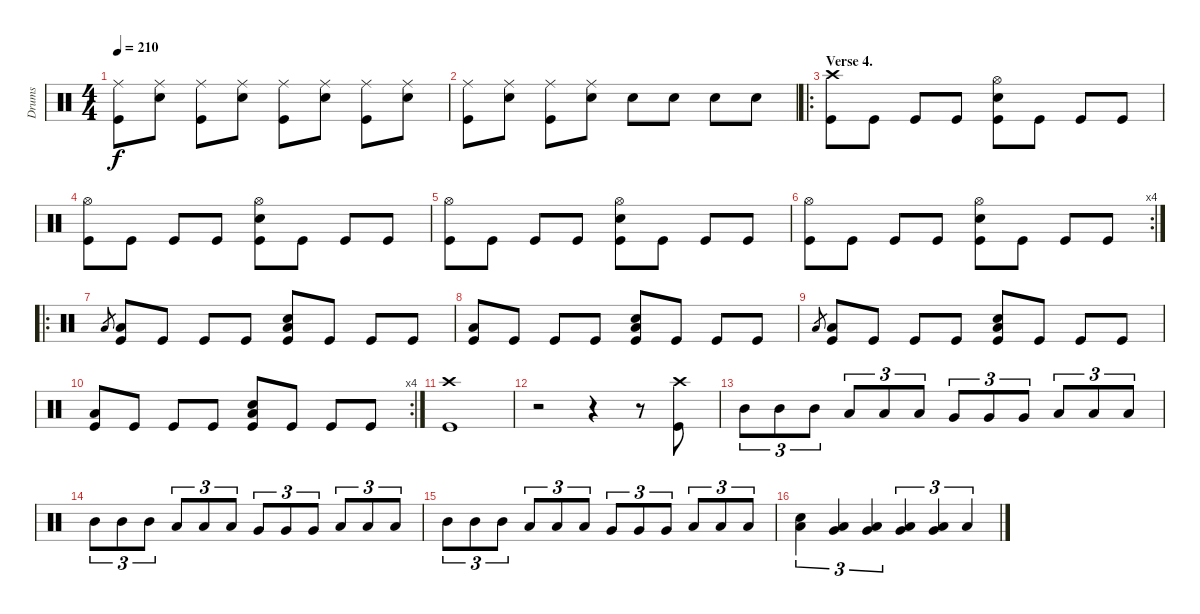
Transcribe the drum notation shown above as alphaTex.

\track ("Drums" "Drums") {instrument percussion}
\staff {score}
\articulation defaults
\ts (4 4)
\tempo 210
\clef neutral
\ks c
("Ride (middle)" "Kick (hit)").8{dy f} ("Ride (middle)" "Snare (hit) 2").8 ("Ride (middle)" "Kick (hit)").8 ("Ride (middle)" "Snare (hit) 2").8 ("Ride (middle)" "Kick (hit)").8 ("Ride (middle)" "Snare (hit) 2").8 ("Ride (middle)" "Kick (hit)").8 ("Ride (middle)" "Snare (hit) 2").8 |
("Ride (middle)" "Kick (hit)").8 ("Ride (middle)" "Snare (hit) 2").8 ("Ride (middle)" "Kick (hit)").8 ("Ride (middle)" "Snare (hit) 2").8 "Snare (hit) 2".8 "Snare (hit) 2".8 "Snare (hit) 2".8 "Snare (hit) 2".8 |
\ro
\section ("" "Verse 4.")
("Crash high (hit)" "Kick (hit)").8 "Kick (hit)".8 "Kick (hit)".8 "Kick (hit)".8 ("Hi-Hat (open)" "Snare (hit) 2" "Kick (hit)").8 "Kick (hit)".8 "Kick (hit)".8 "Kick (hit)".8 |
("Hi-Hat (open)" "Kick (hit)").8 "Kick (hit)".8 "Kick (hit)".8 "Kick (hit)".8 ("Hi-Hat (open)" "Snare (hit) 2" "Kick (hit)").8 "Kick (hit)".8 "Kick (hit)".8 "Kick (hit)".8 |
("Hi-Hat (open)" "Kick (hit)").8 "Kick (hit)".8 "Kick (hit)".8 "Kick (hit)".8 ("Hi-Hat (open)" "Snare (hit) 2" "Kick (hit)").8 "Kick (hit)".8 "Kick (hit)".8 "Kick (hit)".8 |
\rc 4
("Hi-Hat (open)" "Kick (hit)").8 "Kick (hit)".8 "Kick (hit)".8 "Kick (hit)".8 ("Hi-Hat (open)" "Snare (hit) 2" "Kick (hit)").8 "Kick (hit)".8 "Kick (hit)".8 "Kick (hit)".8 |
\ro "Low Tom (hit)".8{gr}
("Low Tom (hit)" "Kick (hit)").8 "Kick (hit)".8 "Kick (hit)".8 "Kick (hit)".8 ("Low Floor Tom (hit)" "Snare (hit) 2" "Kick (hit)").8 "Kick (hit)".8 "Kick (hit)".8 "Kick (hit)".8 |
("Low Floor Tom (hit)" "Kick (hit)").8 "Kick (hit)".8 "Kick (hit)".8 "Kick (hit)".8 ("Low Floor Tom (hit)" "Snare (hit) 2" "Kick (hit)").8 "Kick (hit)".8 "Kick (hit)".8 "Kick (hit)".8 |
"Low Tom (hit)".8{gr} ("Low Tom (hit)" "Kick (hit)").8 "Kick (hit)".8 "Kick (hit)".8 "Kick (hit)".8 ("Low Floor Tom (hit)" "Snare (hit) 2" "Kick (hit)").8 "Kick (hit)".8 "Kick (hit)".8 "Kick (hit)".8 |
\rc 4
("Low Floor Tom (hit)" "Kick (hit)").8 "Kick (hit)".8 "Kick (hit)".8 "Kick (hit)".8 ("Low Floor Tom (hit)" "Snare (hit) 2" "Kick (hit)").8 "Kick (hit)".8 "Kick (hit)".8 "Kick (hit)".8 |
("Crash high (hit)" "Kick (hit)").1 |
r.2 r.4 r.8 ("Crash high (hit)" "Kick (hit)").8 |
"Mid Tom (hit)".8{tu (3 2)} "Mid Tom (hit)".8{tu (3 2)} "Mid Tom (hit)".8{tu (3 2)} "Low Tom (hit)".8{tu (3 2)} "Low Tom (hit)".8{tu (3 2)} "Low Tom (hit)".8{tu (3 2)} "Very Low Tom (hit)".8{tu (3 2)} "Very Low Tom (hit)".8{tu (3 2)} "Very Low Tom (hit)".8{tu (3 2)} "Low Floor Tom (hit)".8{tu (3 2)} "Low Floor Tom (hit)".8{tu (3 2)} "Low Floor Tom (hit)".8{tu (3 2)} |
"Mid Tom (hit)".8{tu (3 2)} "Mid Tom (hit)".8{tu (3 2)} "Mid Tom (hit)".8{tu (3 2)} "Low Tom (hit)".8{tu (3 2)} "Low Tom (hit)".8{tu (3 2)} "Low Tom (hit)".8{tu (3 2)} "Very Low Tom (hit)".8{tu (3 2)} "Very Low Tom (hit)".8{tu (3 2)} "Very Low Tom (hit)".8{tu (3 2)} "Low Floor Tom (hit)".8{tu (3 2)} "Low Floor Tom (hit)".8{tu (3 2)} "Low Floor Tom (hit)".8{tu (3 2)} |
"Mid Tom (hit)".8{tu (3 2)} "Mid Tom (hit)".8{tu (3 2)} "Mid Tom (hit)".8{tu (3 2)} "Low Tom (hit)".8{tu (3 2)} "Low Tom (hit)".8{tu (3 2)} "Low Tom (hit)".8{tu (3 2)} "Very Low Tom (hit)".8{tu (3 2)} "Very Low Tom (hit)".8{tu (3 2)} "Very Low Tom (hit)".8{tu (3 2)} "Low Floor Tom (hit)".8{tu (3 2)} "Low Floor Tom (hit)".8{tu (3 2)} "Low Floor Tom (hit)".8{tu (3 2)} |
("Low Floor Tom (hit)" "Snare (hit) 2").4{tu (3 2)} ("Very Low Tom (hit)" "Low Tom (hit)").4{tu (3 2)} ("Very Low Tom (hit)" "Low Tom (hit)").4{tu (3 2)} ("Low Floor Tom (hit)" "Very Low Tom (hit)").4{tu (3 2)} ("Low Floor Tom (hit)" "Very Low Tom (hit)").4{tu (3 2)} "Low Floor Tom (hit)".4{tu (3 2)}
